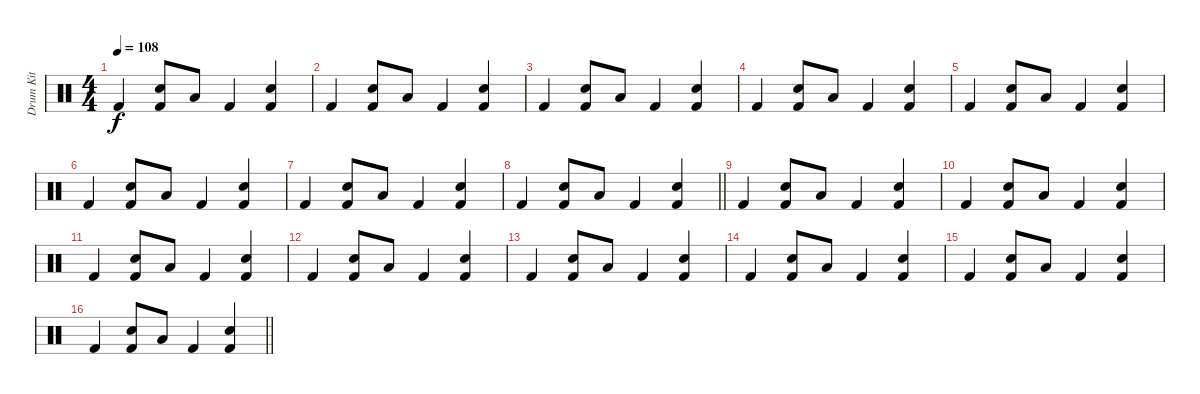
\track ("Drum Kit" "Drum Kit") {instrument percussion}
\staff {score}
\articulation defaults
\ts (4 4)
\section ("" "")
\tempo 108
\clef neutral
\ks c "Kick (hit) 2".4{dy f}
("Electric Snare (hit)" "Kick (hit) 2").8 "Low Floor Tom (hit)".8 "Kick (hit) 2".4 ("Electric Snare (hit)" "Kick (hit) 2").4 |
"Kick (hit) 2".4 ("Electric Snare (hit)" "Kick (hit) 2").8 "Low Floor Tom (hit)".8 "Kick (hit) 2".4 ("Electric Snare (hit)" "Kick (hit) 2").4 |
"Kick (hit) 2".4 ("Electric Snare (hit)" "Kick (hit) 2").8 "Low Floor Tom (hit)".8 "Kick (hit) 2".4 ("Electric Snare (hit)" "Kick (hit) 2").4 |
"Kick (hit) 2".4 ("Electric Snare (hit)" "Kick (hit) 2").8 "Low Floor Tom (hit)".8 "Kick (hit) 2".4 ("Electric Snare (hit)" "Kick (hit) 2").4 |
"Kick (hit) 2".4 ("Electric Snare (hit)" "Kick (hit) 2").8 "Low Floor Tom (hit)".8 "Kick (hit) 2".4 ("Electric Snare (hit)" "Kick (hit) 2").4 |
"Kick (hit) 2".4 ("Electric Snare (hit)" "Kick (hit) 2").8 "Low Floor Tom (hit)".8 "Kick (hit) 2".4 ("Electric Snare (hit)" "Kick (hit) 2").4 |
"Kick (hit) 2".4 ("Electric Snare (hit)" "Kick (hit) 2").8 "Low Floor Tom (hit)".8 "Kick (hit) 2".4 ("Electric Snare (hit)" "Kick (hit) 2").4 |
\barLineRight lightlight "Kick (hit) 2".4
("Electric Snare (hit)" "Kick (hit) 2").8 "Low Floor Tom (hit)".8 "Kick (hit) 2".4 ("Electric Snare (hit)" "Kick (hit) 2").4 |
\section ("" "")
"Kick (hit) 2".4 ("Electric Snare (hit)" "Kick (hit) 2").8 "Low Floor Tom (hit)".8 "Kick (hit) 2".4 ("Electric Snare (hit)" "Kick (hit) 2").4 |
"Kick (hit) 2".4 ("Electric Snare (hit)" "Kick (hit) 2").8 "Low Floor Tom (hit)".8 "Kick (hit) 2".4 ("Electric Snare (hit)" "Kick (hit) 2").4 |
"Kick (hit) 2".4 ("Electric Snare (hit)" "Kick (hit) 2").8 "Low Floor Tom (hit)".8 "Kick (hit) 2".4 ("Electric Snare (hit)" "Kick (hit) 2").4 |
"Kick (hit) 2".4 ("Electric Snare (hit)" "Kick (hit) 2").8 "Low Floor Tom (hit)".8 "Kick (hit) 2".4 ("Electric Snare (hit)" "Kick (hit) 2").4 |
"Kick (hit) 2".4 ("Electric Snare (hit)" "Kick (hit) 2").8 "Low Floor Tom (hit)".8 "Kick (hit) 2".4 ("Electric Snare (hit)" "Kick (hit) 2").4 |
"Kick (hit) 2".4 ("Electric Snare (hit)" "Kick (hit) 2").8 "Low Floor Tom (hit)".8 "Kick (hit) 2".4 ("Electric Snare (hit)" "Kick (hit) 2").4 |
"Kick (hit) 2".4 ("Electric Snare (hit)" "Kick (hit) 2").8 "Low Floor Tom (hit)".8 "Kick (hit) 2".4 ("Electric Snare (hit)" "Kick (hit) 2").4 |
\barLineRight lightlight "Kick (hit) 2".4
("Electric Snare (hit)" "Kick (hit) 2").8 "Low Floor Tom (hit)".8 "Kick (hit) 2".4 ("Electric Snare (hit)" "Kick (hit) 2").4
